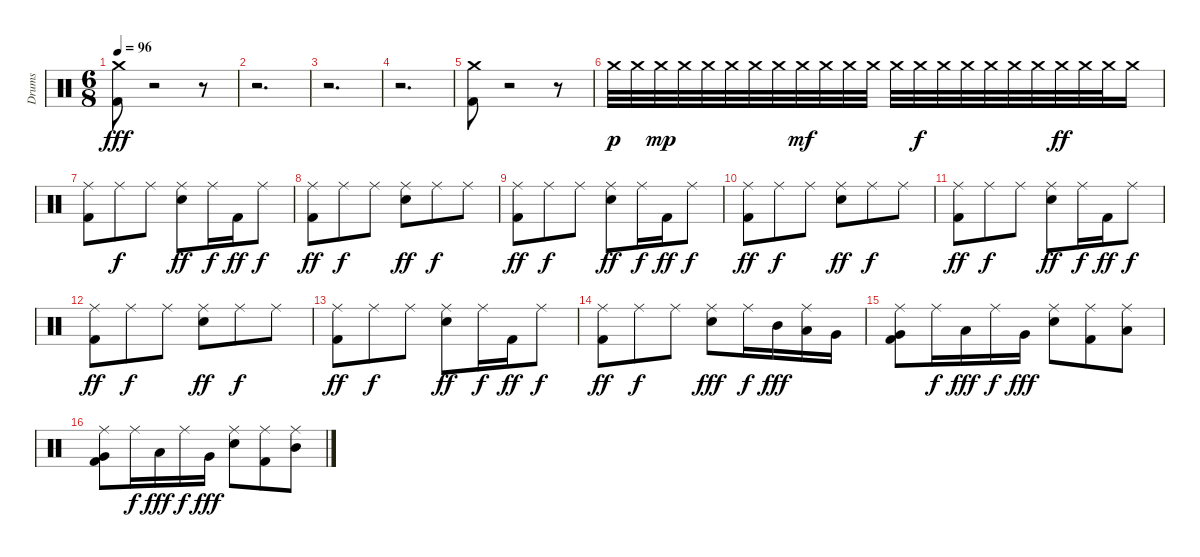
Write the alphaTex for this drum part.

\track ("Drums" "Drums") {instrument percussion}
\staff {score}
\articulation defaults
\ts (6 8)
\tempo 96
\clef neutral
\ks c
("Kick (hit) 2" "Crash medium (hit)").8{dy fff} r.2 r.8 |
r.2{d} |
r.2{d} |
r.2{d} |
("Crash medium (hit)" "Kick (hit) 2").8 r.2 r.8 |
"Crash medium (hit)".32{dy p} "Crash medium (hit)".32 "Crash medium (hit)".32{dy mp} "Crash medium (hit)".32 "Crash medium (hit)".32 "Crash medium (hit)".32 "Crash medium (hit)".32 "Crash medium (hit)".32 "Crash medium (hit)".32{dy mf} "Crash medium (hit)".32 "Crash medium (hit)".32 "Crash medium (hit)".32 "Crash medium (hit)".32 "Crash medium (hit)".32{dy f} "Crash medium (hit)".32 "Crash medium (hit)".32 "Crash medium (hit)".32 "Crash medium (hit)".32 "Crash medium (hit)".32 "Crash medium (hit)".32{dy ff} "Crash medium (hit)".32 "Crash medium (hit)".32 "Crash medium (hit)".16 |
("Ride (middle)" "Kick (hit) 2").8 "Ride (middle)".8{dy f} "Ride (middle)".8 ("Ride (middle)" "Electric Snare (hit)").8{dy ff} "Ride (middle)".16{dy f} "Kick (hit) 2".16{dy ff} "Ride (middle)".8{dy f} |
("Ride (middle)" "Kick (hit) 2").8{dy ff} "Ride (middle)".8{dy f} "Ride (middle)".8 ("Ride (middle)" "Electric Snare (hit)").8{dy ff} "Ride (middle)".8{dy f} "Ride (middle)".8 |
("Kick (hit) 2" "Ride (middle)").8{dy ff} "Ride (middle)".8{dy f} "Ride (middle)".8 ("Electric Snare (hit)" "Ride (middle)").8{dy ff} "Ride (middle)".16{dy f} "Kick (hit) 2".16{dy ff} "Ride (middle)".8{dy f} |
("Kick (hit) 2" "Ride (middle)").8{dy ff} "Ride (middle)".8{dy f} "Ride (middle)".8 ("Electric Snare (hit)" "Ride (middle)").8{dy ff} "Ride (middle)".8{dy f} "Ride (middle)".8 |
("Kick (hit) 2" "Ride (middle)").8{dy ff} "Ride (middle)".8{dy f} "Ride (middle)".8 ("Electric Snare (hit)" "Ride (middle)").8{dy ff} "Ride (middle)".16{dy f} "Kick (hit) 2".16{dy ff} "Ride (middle)".8{dy f} |
("Kick (hit) 2" "Ride (middle)").8{dy ff} "Ride (middle)".8{dy f} "Ride (middle)".8 ("Electric Snare (hit)" "Ride (middle)").8{dy ff} "Ride (middle)".8{dy f} "Ride (middle)".8 |
("Kick (hit) 2" "Ride (middle)").8{dy ff} "Ride (middle)".8{dy f} "Ride (middle)".8 ("Electric Snare (hit)" "Ride (middle)").8{dy ff} "Ride (middle)".16{dy f} "Kick (hit) 2".16{dy ff} "Ride (middle)".8{dy f} |
("Kick (hit) 2" "Ride (middle)").8{dy ff} "Ride (middle)".8{dy f} "Ride (middle)".8 ("Electric Snare (hit)" "Ride (middle)").8{dy fff} "Ride (middle)".16{dy f} "Mid Tom (hit)".16{dy fff} ("Ride (middle)" "Low Tom (hit)").16 "Very Low Tom (hit)".16 |
("Ride (middle)" "Kick (hit) 2" "Very Low Tom (hit)").8 "Ride (middle)".16{dy f} "Low Tom (hit)".16{dy fff} "Ride (middle)".16{dy f} "Very Low Tom (hit)".16{dy fff} ("Ride (middle)" "Electric Snare (hit)").8 ("Ride (middle)" "Kick (hit) 2").8 ("Ride (middle)" "Low Tom (hit)").8 |
("Ride (middle)" "Kick (hit) 2" "Very Low Tom (hit)").8 "Ride (middle)".16{dy f} "Low Tom (hit)".16{dy fff} "Ride (middle)".16{dy f} "Very Low Tom (hit)".16{dy fff} ("Ride (middle)" "Electric Snare (hit)").8 ("Ride (middle)" "Kick (hit) 2").8 ("Ride (middle)" "Mid Tom (hit)").8
